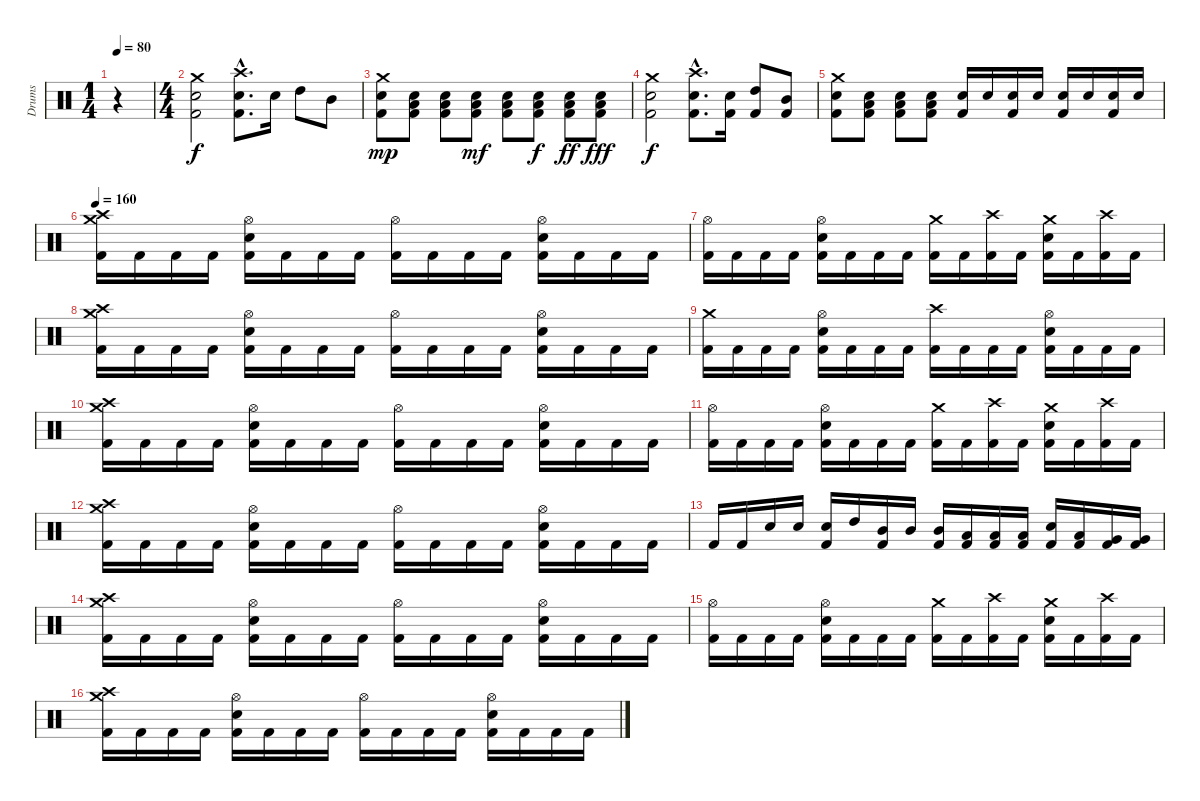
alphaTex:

\track ("Drums" "Drums") {instrument percussion}
\staff {score}
\articulation defaults
\ts (1 4)
\tempo 80
\clef neutral
\ks c
r.4{dy f} |
\ts (4 4)
("Crash medium (hit)" "Snare (hit) 2" "Kick (hit) 2").2 ("Crash high (hit)"{hac} "Snare (hit) 2"{hac} "Kick (hit) 2"{hac}).8{d} "Snare (hit) 2".16 "High Tom (hit)".8 "Mid Tom (hit)".8 |
("Crash medium (hit)" "Snare (hit) 2" "Kick (hit) 2").8{dy mp} ("Low Floor Tom (hit)" "Snare (hit) 2" "Kick (hit) 2").8 ("Low Floor Tom (hit)" "Snare (hit) 2" "Kick (hit) 2").8 ("Low Floor Tom (hit)" "Snare (hit) 2" "Kick (hit) 2").8{dy mf} ("Low Floor Tom (hit)" "Snare (hit) 2" "Kick (hit) 2").8 ("Low Floor Tom (hit)" "Snare (hit) 2" "Kick (hit) 2").8{dy f} ("Low Floor Tom (hit)" "Snare (hit) 2" "Kick (hit) 2").8{dy ff} ("Low Floor Tom (hit)" "Snare (hit) 2" "Kick (hit) 2").8{dy fff} |
("Crash medium (hit)" "Snare (hit) 2" "Kick (hit) 2").2{dy f} ("Crash high (hit)"{hac} "Snare (hit) 2"{hac} "Kick (hit) 2"{hac}).8{d} ("Snare (hit) 2" "Kick (hit) 2").16 ("High Tom (hit)" "Kick (hit) 2").8 ("Mid Tom (hit)" "Kick (hit) 2").8 |
("Crash medium (hit)" "Kick (hit) 2" "Snare (hit) 2").8 ("Low Floor Tom (hit)" "Kick (hit) 2" "Snare (hit) 2").8 ("Low Floor Tom (hit)" "Kick (hit) 2" "Snare (hit) 2").8 ("Low Floor Tom (hit)" "Kick (hit) 2" "Snare (hit) 2").8 ("Kick (hit) 2" "Snare (hit) 2").16 "Snare (hit) 2".16 ("Kick (hit) 2" "Snare (hit) 2").16 "Snare (hit) 2".16 ("Kick (hit) 2" "Snare (hit) 2").16 "Snare (hit) 2".16 ("Kick (hit) 2" "Snare (hit) 2").16 "Snare (hit) 2".16 |
\tempo 160
("Crash medium (hit)" "Crash high (hit)" "Kick (hit) 2").16 "Kick (hit) 2".16 "Kick (hit) 2".16 "Kick (hit) 2".16 ("Hi-Hat (open)" "Kick (hit) 2" "Snare (hit) 2").16 "Kick (hit) 2".16 "Kick (hit) 2".16 "Kick (hit) 2".16 ("Hi-Hat (open)" "Kick (hit) 2").16 "Kick (hit) 2".16 "Kick (hit) 2".16 "Kick (hit) 2".16 ("Hi-Hat (open)" "Kick (hit) 2" "Snare (hit) 2").16 "Kick (hit) 2".16 "Kick (hit) 2".16 "Kick (hit) 2".16 |
("Hi-Hat (open)" "Kick (hit) 2").16 "Kick (hit) 2".16 "Kick (hit) 2".16 "Kick (hit) 2".16 ("Hi-Hat (open)" "Kick (hit) 2" "Snare (hit) 2").16 "Kick (hit) 2".16 "Kick (hit) 2".16 "Kick (hit) 2".16 ("Crash medium (hit)" "Kick (hit) 2").16 "Kick (hit) 2".16 ("Crash high (hit)" "Kick (hit) 2").16 "Kick (hit) 2".16 ("Crash medium (hit)" "Kick (hit) 2" "Snare (hit) 2").16 "Kick (hit) 2".16 ("Crash high (hit)" "Kick (hit) 2").16 "Kick (hit) 2".16 |
("Crash medium (hit)" "Crash high (hit)" "Kick (hit) 2").16 "Kick (hit) 2".16 "Kick (hit) 2".16 "Kick (hit) 2".16 ("Hi-Hat (open)" "Kick (hit) 2" "Snare (hit) 2").16 "Kick (hit) 2".16 "Kick (hit) 2".16 "Kick (hit) 2".16 ("Hi-Hat (open)" "Kick (hit) 2").16 "Kick (hit) 2".16 "Kick (hit) 2".16 "Kick (hit) 2".16 ("Hi-Hat (open)" "Kick (hit) 2" "Snare (hit) 2").16 "Kick (hit) 2".16 "Kick (hit) 2".16 "Kick (hit) 2".16 |
("Crash medium (hit)" "Kick (hit) 2").16 "Kick (hit) 2".16 "Kick (hit) 2".16 "Kick (hit) 2".16 ("Hi-Hat (open)" "Kick (hit) 2" "Snare (hit) 2").16 "Kick (hit) 2".16 "Kick (hit) 2".16 "Kick (hit) 2".16 ("Crash high (hit)" "Kick (hit) 2").16 "Kick (hit) 2".16 "Kick (hit) 2".16 "Kick (hit) 2".16 ("Hi-Hat (open)" "Kick (hit) 2" "Snare (hit) 2").16 "Kick (hit) 2".16 "Kick (hit) 2".16 "Kick (hit) 2".16 |
("Crash medium (hit)" "Crash high (hit)" "Kick (hit) 2").16 "Kick (hit) 2".16 "Kick (hit) 2".16 "Kick (hit) 2".16 ("Hi-Hat (open)" "Kick (hit) 2" "Snare (hit) 2").16 "Kick (hit) 2".16 "Kick (hit) 2".16 "Kick (hit) 2".16 ("Hi-Hat (open)" "Kick (hit) 2").16 "Kick (hit) 2".16 "Kick (hit) 2".16 "Kick (hit) 2".16 ("Hi-Hat (open)" "Kick (hit) 2" "Snare (hit) 2").16 "Kick (hit) 2".16 "Kick (hit) 2".16 "Kick (hit) 2".16 |
("Hi-Hat (open)" "Kick (hit) 2").16 "Kick (hit) 2".16 "Kick (hit) 2".16 "Kick (hit) 2".16 ("Hi-Hat (open)" "Kick (hit) 2" "Snare (hit) 2").16 "Kick (hit) 2".16 "Kick (hit) 2".16 "Kick (hit) 2".16 ("Crash medium (hit)" "Kick (hit) 2").16 "Kick (hit) 2".16 ("Crash high (hit)" "Kick (hit) 2").16 "Kick (hit) 2".16 ("Crash medium (hit)" "Kick (hit) 2" "Snare (hit) 2").16 "Kick (hit) 2".16 ("Crash high (hit)" "Kick (hit) 2").16 "Kick (hit) 2".16 |
("Crash medium (hit)" "Crash high (hit)" "Kick (hit) 2").16 "Kick (hit) 2".16 "Kick (hit) 2".16 "Kick (hit) 2".16 ("Hi-Hat (open)" "Kick (hit) 2" "Snare (hit) 2").16 "Kick (hit) 2".16 "Kick (hit) 2".16 "Kick (hit) 2".16 ("Hi-Hat (open)" "Kick (hit) 2").16 "Kick (hit) 2".16 "Kick (hit) 2".16 "Kick (hit) 2".16 ("Hi-Hat (open)" "Kick (hit) 2" "Snare (hit) 2").16 "Kick (hit) 2".16 "Kick (hit) 2".16 "Kick (hit) 2".16 |
"Kick (hit) 2".16 "Kick (hit) 2".16 "Snare (hit) 2".16 "Snare (hit) 2".16 ("Kick (hit) 2" "Snare (hit) 2").16 "High Tom (hit)".16 ("Kick (hit) 2" "Mid Tom (hit)").16 "Mid Tom (hit)".16 ("Kick (hit) 2" "Mid Tom (hit)").16 ("Kick (hit) 2" "Low Tom (hit)").16 ("Kick (hit) 2" "Low Tom (hit)").16 ("Kick (hit) 2" "Low Tom (hit)").16 ("Kick (hit) 2" "Snare (hit) 2").16 ("Kick (hit) 2" "Low Tom (hit)").16 ("Kick (hit) 2" "Very Low Tom (hit)").16 ("Kick (hit) 2" "Very Low Tom (hit)").16 |
("Crash medium (hit)" "Crash high (hit)" "Kick (hit) 2").16 "Kick (hit) 2".16 "Kick (hit) 2".16 "Kick (hit) 2".16 ("Hi-Hat (open)" "Kick (hit) 2" "Snare (hit) 2").16 "Kick (hit) 2".16 "Kick (hit) 2".16 "Kick (hit) 2".16 ("Hi-Hat (open)" "Kick (hit) 2").16 "Kick (hit) 2".16 "Kick (hit) 2".16 "Kick (hit) 2".16 ("Hi-Hat (open)" "Kick (hit) 2" "Snare (hit) 2").16 "Kick (hit) 2".16 "Kick (hit) 2".16 "Kick (hit) 2".16 |
("Hi-Hat (open)" "Kick (hit) 2").16 "Kick (hit) 2".16 "Kick (hit) 2".16 "Kick (hit) 2".16 ("Hi-Hat (open)" "Kick (hit) 2" "Snare (hit) 2").16 "Kick (hit) 2".16 "Kick (hit) 2".16 "Kick (hit) 2".16 ("Crash medium (hit)" "Kick (hit) 2").16 "Kick (hit) 2".16 ("Crash high (hit)" "Kick (hit) 2").16 "Kick (hit) 2".16 ("Crash medium (hit)" "Kick (hit) 2" "Snare (hit) 2").16 "Kick (hit) 2".16 ("Crash high (hit)" "Kick (hit) 2").16 "Kick (hit) 2".16 |
("Crash medium (hit)" "Crash high (hit)" "Kick (hit) 2").16 "Kick (hit) 2".16 "Kick (hit) 2".16 "Kick (hit) 2".16 ("Hi-Hat (open)" "Kick (hit) 2" "Snare (hit) 2").16 "Kick (hit) 2".16 "Kick (hit) 2".16 "Kick (hit) 2".16 ("Hi-Hat (open)" "Kick (hit) 2").16 "Kick (hit) 2".16 "Kick (hit) 2".16 "Kick (hit) 2".16 ("Hi-Hat (open)" "Kick (hit) 2" "Snare (hit) 2").16 "Kick (hit) 2".16 "Kick (hit) 2".16 "Kick (hit) 2".16
